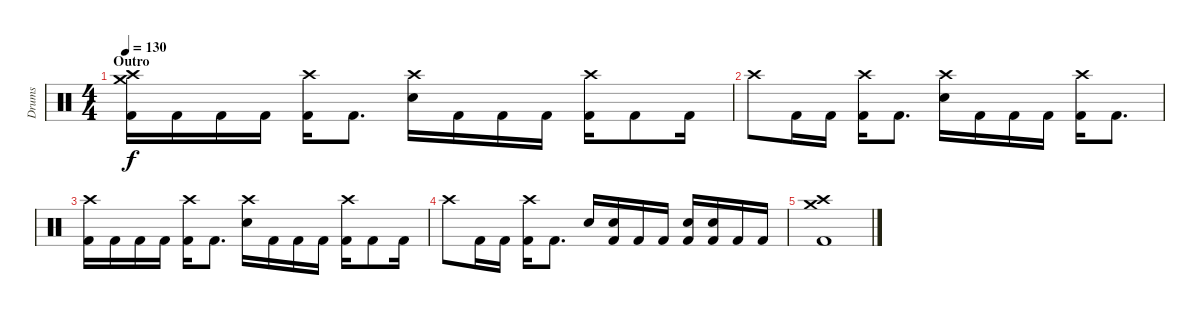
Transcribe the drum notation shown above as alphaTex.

\track ("Drums" "Drums") {instrument percussion}
\staff {score}
\articulation defaults
\ts (4 4)
\section ("" "Outro")
\tempo 130
\clef neutral
\ks c
("Crash high (hit)" "Crash medium (hit)" "Kick (hit) 2").16{dy f} "Kick (hit) 2".16 "Kick (hit) 2".16 "Kick (hit) 2".16 ("Crash high (hit)" "Kick (hit) 2").16 "Kick (hit) 2".8{d} ("Crash high (hit)" "Electric Snare (hit)").16 "Kick (hit) 2".16 "Kick (hit) 2".16 "Kick (hit) 2".16 ("Crash high (hit)" "Kick (hit) 2").16 "Kick (hit) 2".8 "Kick (hit) 2".16 |
"Crash high (hit)".8 "Kick (hit) 2".16 "Kick (hit) 2".16 ("Crash high (hit)" "Kick (hit) 2").16 "Kick (hit) 2".8{d} ("Crash high (hit)" "Electric Snare (hit)").16 "Kick (hit) 2".16 "Kick (hit) 2".16 "Kick (hit) 2".16 ("Crash high (hit)" "Kick (hit) 2").16 "Kick (hit) 2".8{d} |
("Crash high (hit)" "Kick (hit) 2").16 "Kick (hit) 2".16 "Kick (hit) 2".16 "Kick (hit) 2".16 ("Crash high (hit)" "Kick (hit) 2").16 "Kick (hit) 2".8{d} ("Crash high (hit)" "Electric Snare (hit)").16 "Kick (hit) 2".16 "Kick (hit) 2".16 "Kick (hit) 2".16 ("Crash high (hit)" "Kick (hit) 2").16 "Kick (hit) 2".8 "Kick (hit) 2".16 |
"Crash high (hit)".8 "Kick (hit) 2".16 "Kick (hit) 2".16 ("Crash high (hit)" "Kick (hit) 2").16 "Kick (hit) 2".8{d} "Electric Snare (hit)".16 ("Electric Snare (hit)" "Kick (hit) 2").16 "Kick (hit) 2".16 "Kick (hit) 2".16 ("Electric Snare (hit)" "Kick (hit) 2").16 ("Electric Snare (hit)" "Kick (hit) 2").16 "Kick (hit) 2".16 "Kick (hit) 2".16 |
("Crash high (hit)" "Crash medium (hit)" "Kick (hit) 2").1
